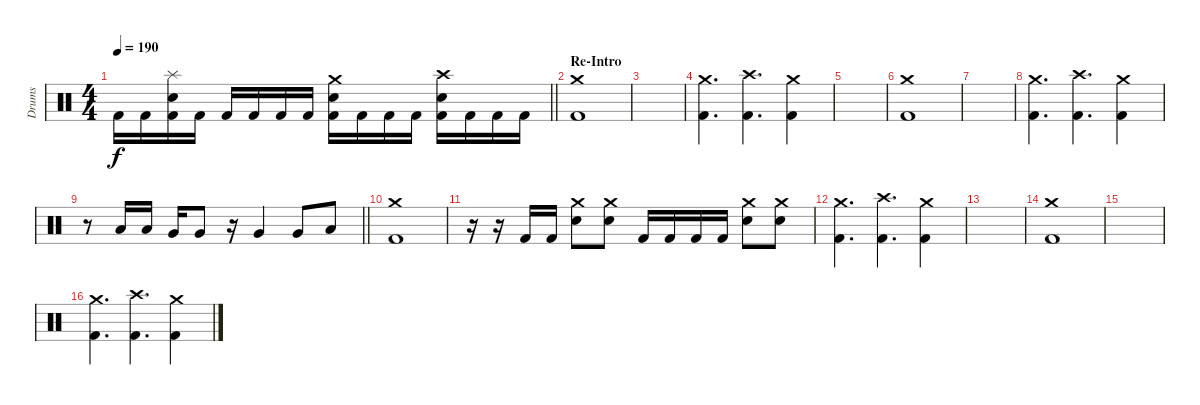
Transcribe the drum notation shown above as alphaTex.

\track ("Drums" "Drums") {instrument percussion}
\staff {score}
\articulation defaults
\ts (4 4)
\tempo 190
\clef neutral
\barLineRight lightlight
\ks c "Kick (hit) 2".16{dy f} "Kick (hit) 2".16
("Kick (hit) 2" "Snare (hit) 2" "Splash (hit)").16 "Kick (hit) 2".16 "Kick (hit) 2".16 "Kick (hit) 2".16 "Kick (hit) 2".16 "Kick (hit) 2".16 ("Kick (hit) 2" "Snare (hit) 2" "Crash medium (hit)").16 "Kick (hit) 2".16 "Kick (hit) 2".16 "Kick (hit) 2".16 ("Kick (hit) 2" "Snare (hit) 2" "Crash high (hit)").16 "Kick (hit) 2".16 "Kick (hit) 2".16 "Kick (hit) 2".16 |
\section ("" "Re-Intro")
("Kick (hit) 2" "Crash medium (hit)").1 |
|
("Kick (hit) 2" "Crash medium (hit)").4{d} ("Kick (hit) 2" "Crash high (hit)").4{d} ("Kick (hit) 2" "Crash medium (hit)").4 |
|
("Kick (hit) 2" "Crash medium (hit)").1 |
|
("Kick (hit) 2" "Crash medium (hit)").4{d} ("Kick (hit) 2" "Crash high (hit)").4{d} ("Kick (hit) 2" "Crash medium (hit)").4 |
\barLineRight lightlight
r.8 "Low Tom (hit)".16 "Low Tom (hit)".16 "Very Low Tom (hit)".16 "Very Low Tom (hit)".8 r.16 "Very Low Tom (hit)".4 "Very Low Tom (hit)".8 "Low Floor Tom (hit)".8 |
\section ("" "")
("Kick (hit) 2" "Crash medium (hit)").1 |
r.16 r.16 "Kick (hit) 2".16 "Kick (hit) 2".16 ("Snare (hit) 2" "Crash medium (hit)").8 ("Snare (hit) 2" "Crash medium (hit)").8 "Kick (hit) 2".16 "Kick (hit) 2".16 "Kick (hit) 2".16 "Kick (hit) 2".16 ("Snare (hit) 2" "Crash medium (hit)").8 ("Snare (hit) 2" "Crash medium (hit)").8 |
("Kick (hit) 2" "Crash medium (hit)").4{d} ("Kick (hit) 2" "Crash high (hit)").4{d} ("Kick (hit) 2" "Crash medium (hit)").4 |
|
("Kick (hit) 2" "Crash medium (hit)").1 |
|
("Kick (hit) 2" "Crash medium (hit)").4{d} ("Kick (hit) 2" "Crash high (hit)").4{d} ("Kick (hit) 2" "Crash medium (hit)").4
